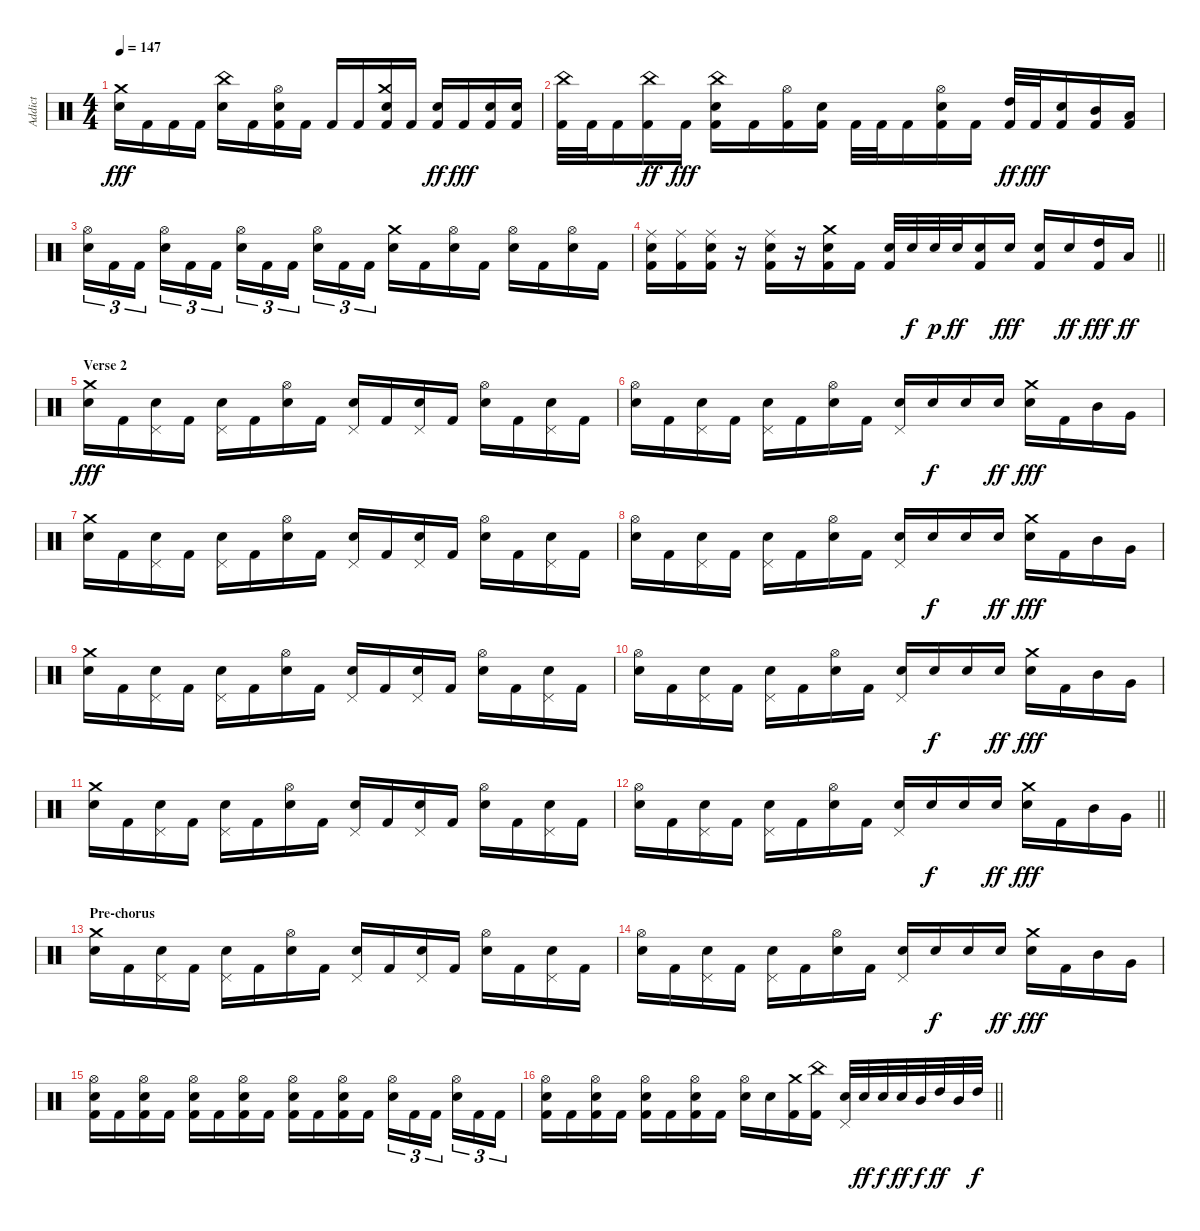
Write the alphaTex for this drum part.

\track ("Addict" "Addict") {instrument percussion}
\staff {score}
\articulation defaults
\ts (4 4)
\tempo 147
\clef neutral
\ks c
("Snare (hit) 2" "Crash medium (hit)").16{dy fff} "Kick (hit) 2".16 "Kick (hit) 2".16 "Kick (hit) 2".16 ("Snare (hit) 2" "China (hit)").16 "Kick (hit) 2".16 ("Kick (hit) 2" "Snare (hit) 2" "Hi-Hat (open)").16 "Kick (hit) 2".16 "Kick (hit) 2".16 "Kick (hit) 2".16 ("Kick (hit) 2" "Snare (hit) 2" "Crash medium (hit)").16 "Kick (hit) 2".16 ("Kick (hit) 2" "Snare (hit) 2").16{dy ff} "Kick (hit) 2".16{dy fff} ("Kick (hit) 2" "Snare (hit) 2").16 ("Kick (hit) 2" "Snare (hit) 2").16 |
("Kick (hit) 2" "China (hit)").32 "Kick (hit) 2".32 "Kick (hit) 2".16 ("Kick (hit) 2" "China (hit)").16{dy ff} "Kick (hit) 2".16{dy fff} ("Kick (hit) 2" "Snare (hit) 2" "China (hit)").16 "Kick (hit) 2".16 ("Kick (hit) 2" "Hi-Hat (open)").16 ("Kick (hit) 2" "Snare (hit) 2").16 "Kick (hit) 2".32 "Kick (hit) 2".32 "Kick (hit) 2".16 ("Kick (hit) 2" "Snare (hit) 2" "Hi-Hat (open)").16 "Kick (hit) 2".16 ("Kick (hit) 2" "High Tom (hit)").32{dy ff} "Kick (hit) 2".32{dy fff} ("Kick (hit) 2" "Snare (hit) 2").16 ("Mid Tom (hit)" "Kick (hit) 2").16 ("Kick (hit) 2" "Low Tom (hit)").16 |
("Snare (hit) 2" "Hi-Hat (open)").16{tu (3 2)} "Kick (hit) 2".16{tu (3 2)} "Kick (hit) 2".16{tu (3 2) beam splitsecondary} ("Snare (hit) 2" "Hi-Hat (open)").16{tu (3 2)} "Kick (hit) 2".16{tu (3 2)} "Kick (hit) 2".16{tu (3 2)} ("Snare (hit) 2" "Hi-Hat (open)").16{tu (3 2)} "Kick (hit) 2".16{tu (3 2)} "Kick (hit) 2".16{tu (3 2) beam splitsecondary} ("Snare (hit) 2" "Hi-Hat (open)").16{tu (3 2)} "Kick (hit) 2".16{tu (3 2)} "Kick (hit) 2".16{tu (3 2)} ("Snare (hit) 2" "Crash medium (hit)").16 "Kick (hit) 2".16 ("Snare (hit) 2" "Hi-Hat (open)").16 "Kick (hit) 2".16 ("Snare (hit) 2" "Hi-Hat (open)").16 "Kick (hit) 2".16 ("Snare (hit) 2" "Hi-Hat (open)").16 "Kick (hit) 2".16 |
\barLineRight lightlight
("Kick (hit) 2" "Snare (hit) 2" "Ride (middle)").16 ("Kick (hit) 2" "Ride (middle)").16 ("Kick (hit) 2" "Snare (hit) 2" "Ride (middle)").16 r.16 ("Kick (hit) 2" "Snare (hit) 2" "Ride (middle)").16 r.16 ("Kick (hit) 2" "Snare (hit) 2" "Crash medium (hit)").16 "Kick (hit) 2".16 ("Kick (hit) 2" "Snare (hit) 2").32 "Snare (hit) 2".32{dy f} "Snare (hit) 2".32{dy p} "Snare (hit) 2".32{dy ff} ("Kick (hit) 2" "Snare (hit) 2").16 "Snare (hit) 2".16{dy fff} ("Kick (hit) 2" "Snare (hit) 2").16 "Snare (hit) 2".16{dy ff} ("Kick (hit) 2" "High Tom (hit)").16{dy fff} "Low Tom (hit)".16{dy ff} |
\section ("" "Verse 2")
("Snare (hit) 2" "Crash medium (hit)").16{dy fff} "Kick (hit) 2".16 ("Snare (hit) 2" "Pedal Hi-Hat (hit)").16 "Kick (hit) 2".16 ("Snare (hit) 2" "Pedal Hi-Hat (hit)").16 "Kick (hit) 2".16 ("Snare (hit) 2" "Hi-Hat (open)").16 "Kick (hit) 2".16 ("Snare (hit) 2" "Pedal Hi-Hat (hit)").16 "Kick (hit) 2".16 ("Snare (hit) 2" "Pedal Hi-Hat (hit)").16 "Kick (hit) 2".16 ("Snare (hit) 2" "Hi-Hat (open)").16 "Kick (hit) 2".16 ("Snare (hit) 2" "Pedal Hi-Hat (hit)").16 "Kick (hit) 2".16 |
("Snare (hit) 2" "Hi-Hat (open)").16 "Kick (hit) 2".16 ("Snare (hit) 2" "Pedal Hi-Hat (hit)").16 "Kick (hit) 2".16 ("Snare (hit) 2" "Pedal Hi-Hat (hit)").16 "Kick (hit) 2".16 ("Snare (hit) 2" "Hi-Hat (open)").16 "Kick (hit) 2".16 ("Snare (hit) 2" "Pedal Hi-Hat (hit)").16 "Snare (hit) 2".16{dy f} "Snare (hit) 2".16 "Snare (hit) 2".16{dy ff} ("Snare (hit) 2" "Crash medium (hit)").16{dy fff} "Kick (hit) 2".16 "Mid Tom (hit)".16 "Very Low Tom (hit)".16 |
("Snare (hit) 2" "Crash medium (hit)").16 "Kick (hit) 2".16 ("Snare (hit) 2" "Pedal Hi-Hat (hit)").16 "Kick (hit) 2".16 ("Snare (hit) 2" "Pedal Hi-Hat (hit)").16 "Kick (hit) 2".16 ("Snare (hit) 2" "Hi-Hat (open)").16 "Kick (hit) 2".16 ("Snare (hit) 2" "Pedal Hi-Hat (hit)").16 "Kick (hit) 2".16 ("Snare (hit) 2" "Pedal Hi-Hat (hit)").16 "Kick (hit) 2".16 ("Snare (hit) 2" "Hi-Hat (open)").16 "Kick (hit) 2".16 ("Snare (hit) 2" "Pedal Hi-Hat (hit)").16 "Kick (hit) 2".16 |
("Snare (hit) 2" "Hi-Hat (open)").16 "Kick (hit) 2".16 ("Snare (hit) 2" "Pedal Hi-Hat (hit)").16 "Kick (hit) 2".16 ("Snare (hit) 2" "Pedal Hi-Hat (hit)").16 "Kick (hit) 2".16 ("Snare (hit) 2" "Hi-Hat (open)").16 "Kick (hit) 2".16 ("Snare (hit) 2" "Pedal Hi-Hat (hit)").16 "Snare (hit) 2".16{dy f} "Snare (hit) 2".16 "Snare (hit) 2".16{dy ff} ("Snare (hit) 2" "Crash medium (hit)").16{dy fff} "Kick (hit) 2".16 "Mid Tom (hit)".16 "Very Low Tom (hit)".16 |
("Snare (hit) 2" "Crash medium (hit)").16 "Kick (hit) 2".16 ("Snare (hit) 2" "Pedal Hi-Hat (hit)").16 "Kick (hit) 2".16 ("Snare (hit) 2" "Pedal Hi-Hat (hit)").16 "Kick (hit) 2".16 ("Snare (hit) 2" "Hi-Hat (open)").16 "Kick (hit) 2".16 ("Snare (hit) 2" "Pedal Hi-Hat (hit)").16 "Kick (hit) 2".16 ("Snare (hit) 2" "Pedal Hi-Hat (hit)").16 "Kick (hit) 2".16 ("Snare (hit) 2" "Hi-Hat (open)").16 "Kick (hit) 2".16 ("Snare (hit) 2" "Pedal Hi-Hat (hit)").16 "Kick (hit) 2".16 |
("Snare (hit) 2" "Hi-Hat (open)").16 "Kick (hit) 2".16 ("Snare (hit) 2" "Pedal Hi-Hat (hit)").16 "Kick (hit) 2".16 ("Snare (hit) 2" "Pedal Hi-Hat (hit)").16 "Kick (hit) 2".16 ("Snare (hit) 2" "Hi-Hat (open)").16 "Kick (hit) 2".16 ("Snare (hit) 2" "Pedal Hi-Hat (hit)").16 "Snare (hit) 2".16{dy f} "Snare (hit) 2".16 "Snare (hit) 2".16{dy ff} ("Snare (hit) 2" "Crash medium (hit)").16{dy fff} "Kick (hit) 2".16 "Mid Tom (hit)".16 "Very Low Tom (hit)".16 |
("Snare (hit) 2" "Crash medium (hit)").16 "Kick (hit) 2".16 ("Snare (hit) 2" "Pedal Hi-Hat (hit)").16 "Kick (hit) 2".16 ("Snare (hit) 2" "Pedal Hi-Hat (hit)").16 "Kick (hit) 2".16 ("Snare (hit) 2" "Hi-Hat (open)").16 "Kick (hit) 2".16 ("Snare (hit) 2" "Pedal Hi-Hat (hit)").16 "Kick (hit) 2".16 ("Snare (hit) 2" "Pedal Hi-Hat (hit)").16 "Kick (hit) 2".16 ("Snare (hit) 2" "Hi-Hat (open)").16 "Kick (hit) 2".16 ("Snare (hit) 2" "Pedal Hi-Hat (hit)").16 "Kick (hit) 2".16 |
\barLineRight lightlight
("Snare (hit) 2" "Hi-Hat (open)").16 "Kick (hit) 2".16 ("Snare (hit) 2" "Pedal Hi-Hat (hit)").16 "Kick (hit) 2".16 ("Snare (hit) 2" "Pedal Hi-Hat (hit)").16 "Kick (hit) 2".16 ("Snare (hit) 2" "Hi-Hat (open)").16 "Kick (hit) 2".16 ("Snare (hit) 2" "Pedal Hi-Hat (hit)").16 "Snare (hit) 2".16{dy f} "Snare (hit) 2".16 "Snare (hit) 2".16{dy ff} ("Snare (hit) 2" "Crash medium (hit)").16{dy fff} "Kick (hit) 2".16 "Mid Tom (hit)".16 "Very Low Tom (hit)".16 |
\section ("" "Pre-chorus")
("Snare (hit) 2" "Crash medium (hit)").16 "Kick (hit) 2".16 ("Snare (hit) 2" "Pedal Hi-Hat (hit)").16 "Kick (hit) 2".16 ("Snare (hit) 2" "Pedal Hi-Hat (hit)").16 "Kick (hit) 2".16 ("Snare (hit) 2" "Hi-Hat (open)").16 "Kick (hit) 2".16 ("Snare (hit) 2" "Pedal Hi-Hat (hit)").16 "Kick (hit) 2".16 ("Snare (hit) 2" "Pedal Hi-Hat (hit)").16 "Kick (hit) 2".16 ("Snare (hit) 2" "Hi-Hat (open)").16 "Kick (hit) 2".16 ("Snare (hit) 2" "Pedal Hi-Hat (hit)").16 "Kick (hit) 2".16 |
("Snare (hit) 2" "Hi-Hat (open)").16 "Kick (hit) 2".16 ("Snare (hit) 2" "Pedal Hi-Hat (hit)").16 "Kick (hit) 2".16 ("Snare (hit) 2" "Pedal Hi-Hat (hit)").16 "Kick (hit) 2".16 ("Snare (hit) 2" "Hi-Hat (open)").16 "Kick (hit) 2".16 ("Snare (hit) 2" "Pedal Hi-Hat (hit)").16 "Snare (hit) 2".16{dy f} "Snare (hit) 2".16 "Snare (hit) 2".16{dy ff} ("Snare (hit) 2" "Crash medium (hit)").16{dy fff} "Kick (hit) 2".16 "Mid Tom (hit)".16 "Very Low Tom (hit)".16 |
("Kick (hit) 2" "Snare (hit) 2" "Hi-Hat (open)").16 "Kick (hit) 2".16 ("Kick (hit) 2" "Snare (hit) 2" "Hi-Hat (open)").16 "Kick (hit) 2".16 ("Kick (hit) 2" "Snare (hit) 2" "Hi-Hat (open)").16 "Kick (hit) 2".16 ("Kick (hit) 2" "Snare (hit) 2" "Hi-Hat (open)").16 "Kick (hit) 2".16 ("Kick (hit) 2" "Snare (hit) 2" "Hi-Hat (open)").16 "Kick (hit) 2".16 ("Kick (hit) 2" "Snare (hit) 2" "Hi-Hat (open)").16 "Kick (hit) 2".16 ("Snare (hit) 2" "Hi-Hat (open)").16{tu (3 2)} "Kick (hit) 2".16{tu (3 2)} "Kick (hit) 2".16{tu (3 2) beam splitsecondary} ("Snare (hit) 2" "Hi-Hat (open)").16{tu (3 2)} "Kick (hit) 2".16{tu (3 2)} "Kick (hit) 2".16{tu (3 2)} |
\barLineRight lightlight
("Kick (hit) 2" "Snare (hit) 2" "Hi-Hat (open)").16 "Kick (hit) 2".16 ("Kick (hit) 2" "Snare (hit) 2" "Hi-Hat (open)").16 "Kick (hit) 2".16 ("Kick (hit) 2" "Snare (hit) 2" "Hi-Hat (open)").16 "Kick (hit) 2".16 ("Kick (hit) 2" "Snare (hit) 2" "Hi-Hat (open)").16 "Kick (hit) 2".16 ("Snare (hit) 2" "Hi-Hat (open)").16 "Snare (hit) 2".16 ("Kick (hit) 2" "Crash medium (hit)").16 ("Kick (hit) 2" "China (hit)").16 ("Snare (hit) 2" "Pedal Hi-Hat (hit)").32 "Snare (hit) 2".32{dy ff} "Snare (hit) 2".32{dy f} "Snare (hit) 2".32{dy ff} "Mid Tom (hit)".32{dy f} "High Tom (hit)".32{dy ff} "Mid Tom (hit)".32 "High Tom (hit)".32{dy f}
